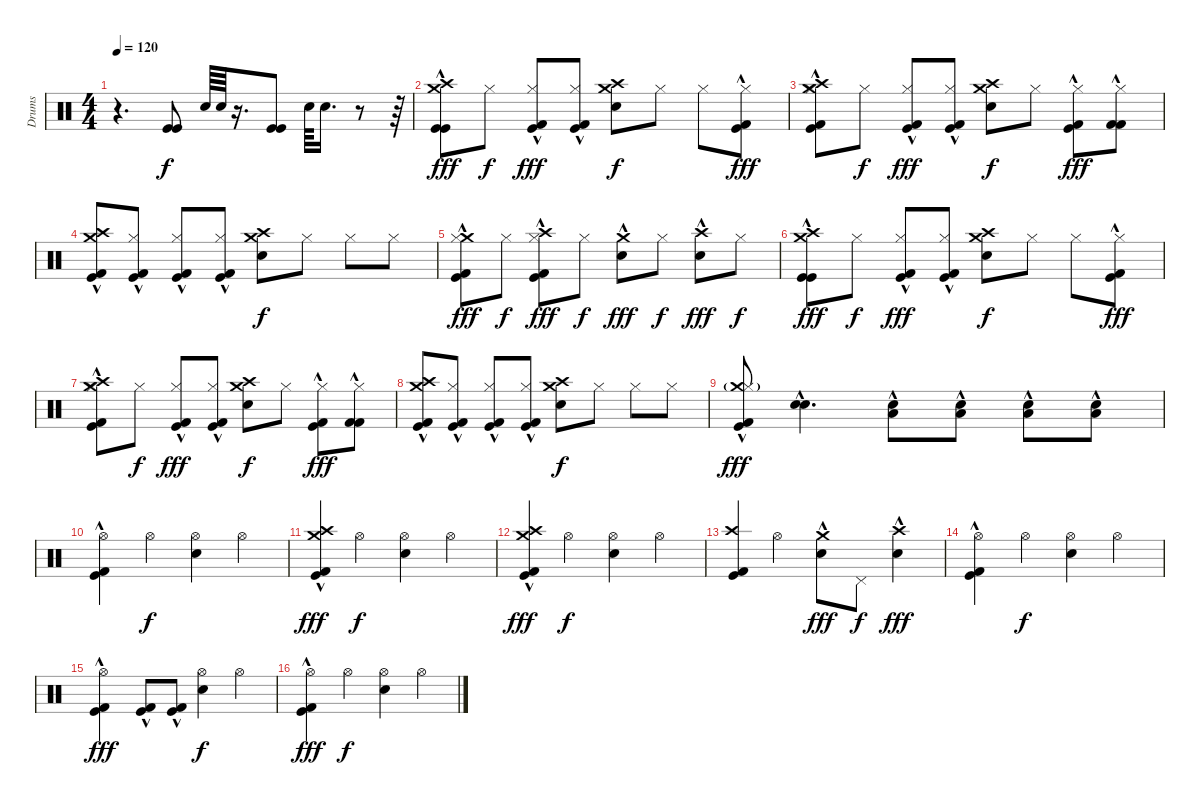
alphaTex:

\track ("Drums" "Drums") {instrument percussion}
\staff {score}
\articulation defaults
\ts (4 4)
\tempo 120
\clef neutral
\ks c
r.4{d dy f} ("Kick (hit)" "Kick (hit)").8 "Electric Snare (hit)".64 "Electric Snare (hit)".64 r.16{d} ("Kick (hit)" "Kick (hit)").8 "Electric Snare (hit)".64 "Electric Snare (hit)".16{d} r.8 r.64 |
("Crash medium (hit)" "Crash high (hit)" "Kick (hit)" "Kick (hit)"{hac}).8{dy fff} "Hi-Hat (closed)".8{dy f} ("Hi-Hat (closed)" "Kick (hit) 2" "Kick (hit)"{hac}).8{dy fff} ("Hi-Hat (closed)" "Kick (hit) 2" "Kick (hit)"{hac}).8 ("Crash medium (hit)" "Crash high (hit)" "Snare (hit) 2").8{dy f} "Hi-Hat (closed)".8 "Hi-Hat (closed)".8 ("Hi-Hat (closed)" "Kick (hit) 2" "Kick (hit)"{hac}).8{dy fff} |
("Crash medium (hit)" "Crash high (hit)" "Hi-Hat (closed)" "Kick (hit) 2" "Kick (hit)"{hac}).8 "Hi-Hat (closed)".8{dy f} ("Hi-Hat (closed)" "Kick (hit) 2" "Kick (hit)"{hac}).8{dy fff} ("Hi-Hat (closed)" "Kick (hit) 2" "Kick (hit)"{hac}).8 ("Crash medium (hit)" "Crash high (hit)" "Snare (hit) 2").8{dy f} "Hi-Hat (closed)".8 ("Hi-Hat (closed)" "Kick (hit) 2" "Kick (hit)"{hac}).8{dy fff} ("Hi-Hat (closed)" "Kick (hit) 2" "Kick (hit) 2"{hac}).8 |
("Crash medium (hit)" "Crash high (hit)" "Kick (hit) 2" "Kick (hit)"{hac}).8 ("Hi-Hat (closed)" "Kick (hit) 2" "Kick (hit)"{hac}).8 ("Hi-Hat (closed)" "Kick (hit) 2" "Kick (hit)"{hac}).8 ("Hi-Hat (closed)" "Kick (hit) 2" "Kick (hit)"{hac}).8 ("Crash medium (hit)" "Crash high (hit)" "Snare (hit) 2").8{dy f} "Hi-Hat (closed)".8 "Hi-Hat (closed)".8 "Hi-Hat (closed)".8 |
("Crash medium (hit)"{hac} "Hi-Hat (closed)" "Kick (hit) 2"{hac} "Kick (hit)"{hac}).8{dy fff} "Hi-Hat (closed)".8{dy f} ("Crash high (hit)"{hac} "Hi-Hat (closed)" "Kick (hit) 2"{hac} "Kick (hit)"{hac}).8{dy fff} "Hi-Hat (closed)".8{dy f} ("Crash medium (hit)"{hac} "Snare (hit) 2"{hac}).8{dy fff} "Hi-Hat (closed)".8{dy f} ("Crash high (hit)"{hac} "Snare (hit) 2"{hac}).8{dy fff} "Hi-Hat (closed)".8{dy f} |
("Crash medium (hit)" "Crash high (hit)" "Kick (hit)" "Kick (hit)"{hac}).8{dy fff} "Hi-Hat (closed)".8{dy f} ("Hi-Hat (closed)" "Kick (hit) 2" "Kick (hit)"{hac}).8{dy fff} ("Hi-Hat (closed)" "Kick (hit) 2" "Kick (hit)"{hac}).8 ("Crash medium (hit)" "Crash high (hit)" "Snare (hit) 2").8{dy f} "Hi-Hat (closed)".8 "Hi-Hat (closed)".8 ("Hi-Hat (closed)" "Kick (hit) 2" "Kick (hit)"{hac}).8{dy fff} |
("Crash medium (hit)" "Crash high (hit)" "Hi-Hat (closed)" "Kick (hit) 2" "Kick (hit)"{hac}).8 "Hi-Hat (closed)".8{dy f} ("Hi-Hat (closed)" "Kick (hit) 2" "Kick (hit)"{hac}).8{dy fff} ("Hi-Hat (closed)" "Kick (hit) 2" "Kick (hit)"{hac}).8 ("Crash medium (hit)" "Crash high (hit)" "Snare (hit) 2").8{dy f} "Hi-Hat (closed)".8 ("Hi-Hat (closed)" "Kick (hit) 2" "Kick (hit)"{hac}).8{dy fff} ("Hi-Hat (closed)" "Kick (hit) 2" "Kick (hit) 2"{hac}).8 |
("Crash medium (hit)" "Crash high (hit)" "Kick (hit) 2" "Kick (hit)"{hac}).8 ("Hi-Hat (closed)" "Kick (hit) 2" "Kick (hit)"{hac}).8 ("Hi-Hat (closed)" "Kick (hit) 2" "Kick (hit)"{hac}).8 ("Hi-Hat (closed)" "Kick (hit) 2" "Kick (hit)"{hac}).8 ("Crash medium (hit)" "Crash high (hit)" "Snare (hit) 2").8{dy f} "Hi-Hat (closed)".8 "Hi-Hat (closed)".8 "Hi-Hat (closed)".8 |
("Crash medium (hit)"{g} "Hi-Hat (closed)" "Kick (hit) 2"{hac} "Kick (hit)"{hac}).8{dy fff} ("Snare (hit) 2"{hac} "Snare (hit) 2"{hac}).4{d} ("Snare (hit) 2"{hac} "Low Tom (hit)").8 ("Snare (hit) 2"{hac} "Low Tom (hit)").8 ("Snare (hit) 2"{hac} "Low Tom (hit)").8 ("Snare (hit) 2"{hac} "Low Tom (hit)").8 |
("Hi-Hat (open)" "Kick (hit) 2"{hac} "Kick (hit)"{hac}).4 "Hi-Hat (open)".4{dy f} ("Hi-Hat (open)" "Snare (hit) 2").4 "Hi-Hat (open)".4 |
("Crash medium (hit)" "Crash high (hit)" "Kick (hit) 2"{hac} "Kick (hit)"{hac}).4{dy fff} "Hi-Hat (open)".4{dy f} ("Hi-Hat (open)" "Snare (hit) 2").4 "Hi-Hat (open)".4 |
("Crash medium (hit)" "Crash high (hit)" "Kick (hit) 2"{hac} "Kick (hit)"{hac}).4{dy fff} "Hi-Hat (open)".4{dy f} ("Hi-Hat (open)" "Snare (hit) 2").4 "Hi-Hat (open)".4 |
("Crash high (hit)" "Kick (hit) 2" "Kick (hit)").4 "Hi-Hat (open)".4 ("Crash medium (hit)" "Snare (hit) 2"{hac}).8{dy fff} "Pedal Hi-Hat (hit)".8{dy f} ("Crash high (hit)" "Snare (hit) 2"{hac}).4{dy fff} |
("Hi-Hat (open)" "Kick (hit) 2"{hac} "Kick (hit)"{hac}).4 "Hi-Hat (open)".4{dy f} ("Hi-Hat (open)" "Snare (hit) 2").4 "Hi-Hat (open)".4 |
("Hi-Hat (open)" "Kick (hit) 2"{hac} "Kick (hit)"{hac}).4{dy fff} ("Kick (hit) 2"{hac} "Kick (hit)"{hac}).8 ("Kick (hit) 2"{hac} "Kick (hit)"{hac}).8 ("Hi-Hat (open)" "Snare (hit) 2").4{dy f} "Hi-Hat (open)".4 |
("Hi-Hat (open)" "Kick (hit) 2"{hac} "Kick (hit)"{hac}).4{dy fff} "Hi-Hat (open)".4{dy f} ("Hi-Hat (open)" "Snare (hit) 2").4 "Hi-Hat (open)".4
